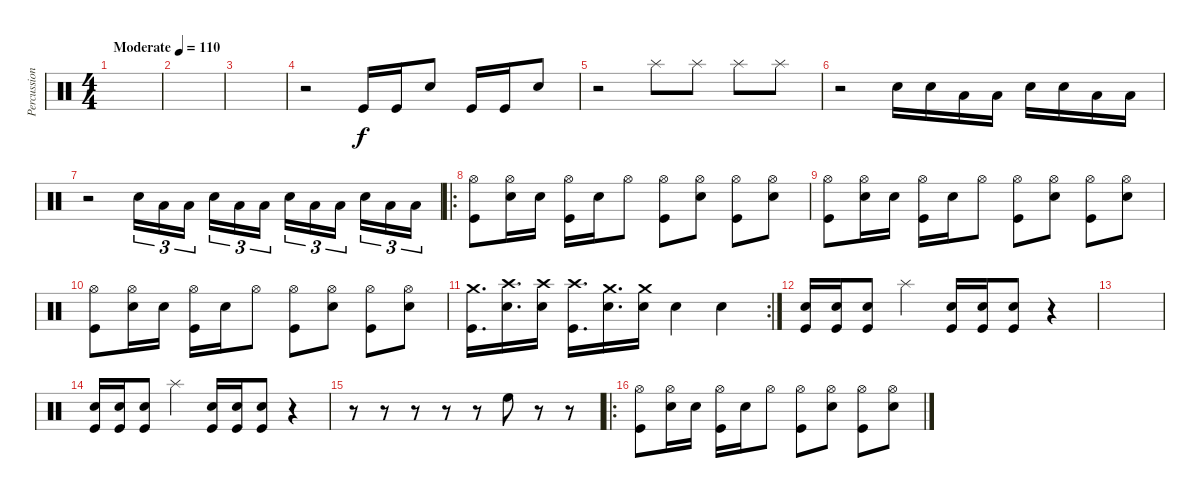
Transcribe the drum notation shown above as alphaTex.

\track ("Percussion" "Percussion") {instrument percussion}
\staff {score}
\articulation defaults
\ts (4 4)
\tempo (110 "Moderate")
\clef neutral
\ks c
|
|
|
r.2 "Kick (hit)".16 "Kick (hit)".16 "Snare (hit) 2".8 "Kick (hit)".16 "Kick (hit)".16 "Snare (hit) 2".8 |
r.2 "Splash (hit)".8 "Splash (hit)".8 "Splash (hit)".8 "Splash (hit)".8 |
r.2 "Snare (hit) 2".16 "Snare (hit) 2".16 "Low Floor Tom (hit)".16 "Low Floor Tom (hit)".16 "Snare (hit) 2".16 "Snare (hit) 2".16 "Low Floor Tom (hit)".16 "Low Floor Tom (hit)".16 |
r.2 "Snare (hit) 2".16{tu (3 2)} "Low Tom (hit)".16{tu (3 2)} "Low Floor Tom (hit)".16{tu (3 2) beam splitsecondary} "Snare (hit) 2".16{tu (3 2)} "Low Tom (hit)".16{tu (3 2)} "Low Floor Tom (hit)".16{tu (3 2)} "Snare (hit) 2".16{tu (3 2)} "Low Tom (hit)".16{tu (3 2)} "Low Floor Tom (hit)".16{tu (3 2) beam splitsecondary} "Snare (hit) 2".16{tu (3 2)} "Low Tom (hit)".16{tu (3 2)} "Low Floor Tom (hit)".16{tu (3 2)} |
\ro
("Hi-Hat (open)" "Kick (hit)").8 ("Hi-Hat (open)" "Snare (hit) 2").16 "Snare (hit) 2".16 ("Hi-Hat (open)" "Kick (hit)").16 "Snare (hit) 2".16 "Hi-Hat (open)".8 ("Hi-Hat (open)" "Kick (hit)").8 ("Hi-Hat (open)" "Snare (hit) 2").8 ("Hi-Hat (open)" "Kick (hit)").8 ("Hi-Hat (open)" "Snare (hit) 2").8 |
("Hi-Hat (open)" "Kick (hit)").8 ("Hi-Hat (open)" "Snare (hit) 2").16 "Snare (hit) 2".16 ("Hi-Hat (open)" "Kick (hit)").16 "Snare (hit) 2".16 "Hi-Hat (open)".8 ("Hi-Hat (open)" "Kick (hit)").8 ("Hi-Hat (open)" "Snare (hit) 2").8 ("Hi-Hat (open)" "Kick (hit)").8 ("Hi-Hat (open)" "Snare (hit) 2").8 |
("Hi-Hat (open)" "Kick (hit)").8 ("Hi-Hat (open)" "Snare (hit) 2").16 "Snare (hit) 2".16 ("Hi-Hat (open)" "Kick (hit)").16 "Snare (hit) 2".16 "Hi-Hat (open)".8 ("Hi-Hat (open)" "Kick (hit)").8 ("Hi-Hat (open)" "Snare (hit) 2").8 ("Hi-Hat (open)" "Kick (hit)").8 ("Hi-Hat (open)" "Snare (hit) 2").8 |
\rc 2
("Crash medium (hit)" "Kick (hit)").16{d} ("Crash high (hit)" "Snare (hit) 2").16{d} ("Crash high (hit)" "Snare (hit) 2").16 ("Crash high (hit)" "Kick (hit)").16{d} ("Crash medium (hit)" "Snare (hit) 2").16{d} ("Crash medium (hit)" "Snare (hit) 2").16 "Snare (hit) 2".4 "Snare (hit) 2".4 |
("Snare (hit) 2" "Kick (hit)").16 ("Snare (hit) 2" "Kick (hit)").16 ("Snare (hit) 2" "Kick (hit)").8 "Splash (hit)".4 ("Snare (hit) 2" "Kick (hit)").16 ("Snare (hit) 2" "Kick (hit)").16 ("Snare (hit) 2" "Kick (hit)").8 r.4 |
|
("Snare (hit) 2" "Kick (hit)").16 ("Snare (hit) 2" "Kick (hit)").16 ("Snare (hit) 2" "Kick (hit)").8 "Splash (hit)".4 ("Snare (hit) 2" "Kick (hit)").16 ("Snare (hit) 2" "Kick (hit)").16 ("Snare (hit) 2" "Kick (hit)").8 r.4 |
r.8 r.8 r.8 r.8 r.8 "High Floor Tom (hit)".8 r.8 r.8 |
\ro
("Hi-Hat (open)" "Kick (hit)").8 ("Hi-Hat (open)" "Snare (hit) 2").16 "Snare (hit) 2".16 ("Hi-Hat (open)" "Kick (hit)").16 "Snare (hit) 2".16 "Hi-Hat (open)".8 ("Hi-Hat (open)" "Kick (hit)").8 ("Hi-Hat (open)" "Snare (hit) 2").8 ("Hi-Hat (open)" "Kick (hit)").8 ("Hi-Hat (open)" "Snare (hit) 2").8
